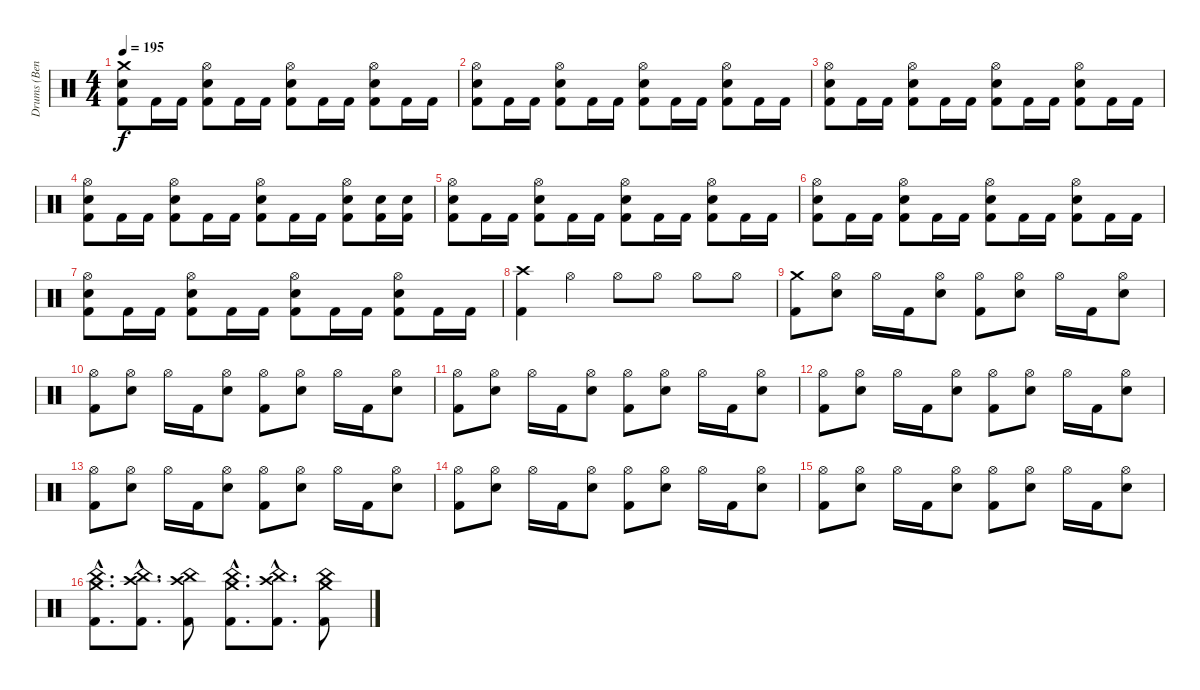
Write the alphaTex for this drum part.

\track ("Drums (Ben)" "Drums (Ben") {instrument percussion}
\staff {score}
\articulation defaults
\ts (4 4)
\tempo 195
\clef neutral
\ks c
("Crash medium (hit)" "Snare (hit) 2" "Kick (hit) 2").8{dy f} "Kick (hit) 2".16 "Kick (hit) 2".16 ("Hi-Hat (open)" "Snare (hit) 2" "Kick (hit) 2").8 "Kick (hit) 2".16 "Kick (hit) 2".16 ("Hi-Hat (open)" "Snare (hit) 2" "Kick (hit) 2").8 "Kick (hit) 2".16 "Kick (hit) 2".16 ("Hi-Hat (open)" "Snare (hit) 2" "Kick (hit) 2").8 "Kick (hit) 2".16 "Kick (hit) 2".16 |
("Hi-Hat (open)" "Snare (hit) 2" "Kick (hit) 2").8 "Kick (hit) 2".16 "Kick (hit) 2".16 ("Hi-Hat (open)" "Snare (hit) 2" "Kick (hit) 2").8 "Kick (hit) 2".16 "Kick (hit) 2".16 ("Hi-Hat (open)" "Snare (hit) 2" "Kick (hit) 2").8 "Kick (hit) 2".16 "Kick (hit) 2".16 ("Hi-Hat (open)" "Snare (hit) 2" "Kick (hit) 2").8 "Kick (hit) 2".16 "Kick (hit) 2".16 |
("Hi-Hat (open)" "Snare (hit) 2" "Kick (hit) 2").8 "Kick (hit) 2".16 "Kick (hit) 2".16 ("Hi-Hat (open)" "Snare (hit) 2" "Kick (hit) 2").8 "Kick (hit) 2".16 "Kick (hit) 2".16 ("Hi-Hat (open)" "Snare (hit) 2" "Kick (hit) 2").8 "Kick (hit) 2".16 "Kick (hit) 2".16 ("Hi-Hat (open)" "Snare (hit) 2" "Kick (hit) 2").8 "Kick (hit) 2".16 "Kick (hit) 2".16 |
("Hi-Hat (open)" "Snare (hit) 2" "Kick (hit) 2").8 "Kick (hit) 2".16 "Kick (hit) 2".16 ("Hi-Hat (open)" "Snare (hit) 2" "Kick (hit) 2").8 "Kick (hit) 2".16 "Kick (hit) 2".16 ("Hi-Hat (open)" "Snare (hit) 2" "Kick (hit) 2").8 "Kick (hit) 2".16 "Kick (hit) 2".16 ("Hi-Hat (open)" "Snare (hit) 2" "Kick (hit) 2").8 ("Snare (hit) 2" "Kick (hit) 2").16 ("Snare (hit) 2" "Kick (hit) 2").16 |
("Hi-Hat (open)" "Snare (hit) 2" "Kick (hit) 2").8 "Kick (hit) 2".16 "Kick (hit) 2".16 ("Hi-Hat (open)" "Snare (hit) 2" "Kick (hit) 2").8 "Kick (hit) 2".16 "Kick (hit) 2".16 ("Hi-Hat (open)" "Snare (hit) 2" "Kick (hit) 2").8 "Kick (hit) 2".16 "Kick (hit) 2".16 ("Hi-Hat (open)" "Snare (hit) 2" "Kick (hit) 2").8 "Kick (hit) 2".16 "Kick (hit) 2".16 |
("Hi-Hat (open)" "Snare (hit) 2" "Kick (hit) 2").8 "Kick (hit) 2".16 "Kick (hit) 2".16 ("Hi-Hat (open)" "Snare (hit) 2" "Kick (hit) 2").8 "Kick (hit) 2".16 "Kick (hit) 2".16 ("Hi-Hat (open)" "Snare (hit) 2" "Kick (hit) 2").8 "Kick (hit) 2".16 "Kick (hit) 2".16 ("Hi-Hat (open)" "Snare (hit) 2" "Kick (hit) 2").8 "Kick (hit) 2".16 "Kick (hit) 2".16 |
("Hi-Hat (open)" "Snare (hit) 2" "Kick (hit) 2").8 "Kick (hit) 2".16 "Kick (hit) 2".16 ("Hi-Hat (open)" "Snare (hit) 2" "Kick (hit) 2").8 "Kick (hit) 2".16 "Kick (hit) 2".16 ("Hi-Hat (open)" "Snare (hit) 2" "Kick (hit) 2").8 "Kick (hit) 2".16 "Kick (hit) 2".16 ("Hi-Hat (open)" "Snare (hit) 2" "Kick (hit) 2").8 "Kick (hit) 2".16 "Kick (hit) 2".16 |
("Crash high (hit)" "Kick (hit) 2").4 "Hi-Hat (open)".4 "Hi-Hat (open)".8 "Hi-Hat (open)".8 "Hi-Hat (open)".8 "Hi-Hat (open)".8 |
("Crash medium (hit)" "Kick (hit) 2").8 ("Hi-Hat (open)" "Snare (hit) 2").8 "Hi-Hat (open)".16 "Kick (hit) 2".16 ("Hi-Hat (open)" "Snare (hit) 2").8 ("Hi-Hat (open)" "Kick (hit) 2").8 ("Hi-Hat (open)" "Snare (hit) 2").8 "Hi-Hat (open)".16 "Kick (hit) 2".16 ("Hi-Hat (open)" "Snare (hit) 2").8 |
("Hi-Hat (open)" "Kick (hit) 2").8 ("Hi-Hat (open)" "Snare (hit) 2").8 "Hi-Hat (open)".16 "Kick (hit) 2".16 ("Hi-Hat (open)" "Snare (hit) 2").8 ("Hi-Hat (open)" "Kick (hit) 2").8 ("Hi-Hat (open)" "Snare (hit) 2").8 "Hi-Hat (open)".16 "Kick (hit) 2".16 ("Hi-Hat (open)" "Snare (hit) 2").8 |
("Hi-Hat (open)" "Kick (hit) 2").8 ("Hi-Hat (open)" "Snare (hit) 2").8 "Hi-Hat (open)".16 "Kick (hit) 2".16 ("Hi-Hat (open)" "Snare (hit) 2").8 ("Hi-Hat (open)" "Kick (hit) 2").8 ("Hi-Hat (open)" "Snare (hit) 2").8 "Hi-Hat (open)".16 "Kick (hit) 2".16 ("Hi-Hat (open)" "Snare (hit) 2").8 |
("Hi-Hat (open)" "Kick (hit) 2").8 ("Hi-Hat (open)" "Snare (hit) 2").8 "Hi-Hat (open)".16 "Kick (hit) 2".16 ("Hi-Hat (open)" "Snare (hit) 2").8 ("Hi-Hat (open)" "Kick (hit) 2").8 ("Hi-Hat (open)" "Snare (hit) 2").8 "Hi-Hat (open)".16 "Kick (hit) 2".16 ("Hi-Hat (open)" "Snare (hit) 2").8 |
("Hi-Hat (open)" "Kick (hit) 2").8 ("Hi-Hat (open)" "Snare (hit) 2").8 "Hi-Hat (open)".16 "Kick (hit) 2".16 ("Hi-Hat (open)" "Snare (hit) 2").8 ("Hi-Hat (open)" "Kick (hit) 2").8 ("Hi-Hat (open)" "Snare (hit) 2").8 "Hi-Hat (open)".16 "Kick (hit) 2".16 ("Hi-Hat (open)" "Snare (hit) 2").8 |
("Hi-Hat (open)" "Kick (hit) 2").8 ("Hi-Hat (open)" "Snare (hit) 2").8 "Hi-Hat (open)".16 "Kick (hit) 2".16 ("Hi-Hat (open)" "Snare (hit) 2").8 ("Hi-Hat (open)" "Kick (hit) 2").8 ("Hi-Hat (open)" "Snare (hit) 2").8 "Hi-Hat (open)".16 "Kick (hit) 2".16 ("Hi-Hat (open)" "Snare (hit) 2").8 |
("Hi-Hat (open)" "Kick (hit) 2").8 ("Hi-Hat (open)" "Snare (hit) 2").8 "Hi-Hat (open)".16 "Kick (hit) 2".16 ("Hi-Hat (open)" "Snare (hit) 2").8 ("Hi-Hat (open)" "Kick (hit) 2").8 ("Hi-Hat (open)" "Snare (hit) 2").8 "Hi-Hat (open)".16 "Kick (hit) 2".16 ("Hi-Hat (open)" "Snare (hit) 2").8 |
("Crash medium (hit)"{hac} "China (hit)"{hac} "Kick (hit) 2"{hac}).8{d} ("Crash high (hit)"{hac} "China (hit)"{hac} "Kick (hit) 2"{hac}).8{d} ("Crash high (hit)" "China (hit)" "Kick (hit) 2").8 ("Crash medium (hit)"{hac} "China (hit)"{hac} "Kick (hit) 2"{hac}).8{d} ("Crash high (hit)"{hac} "China (hit)"{hac} "Kick (hit) 2"{hac}).8{d} ("Crash medium (hit)" "China (hit)" "Kick (hit) 2").8
